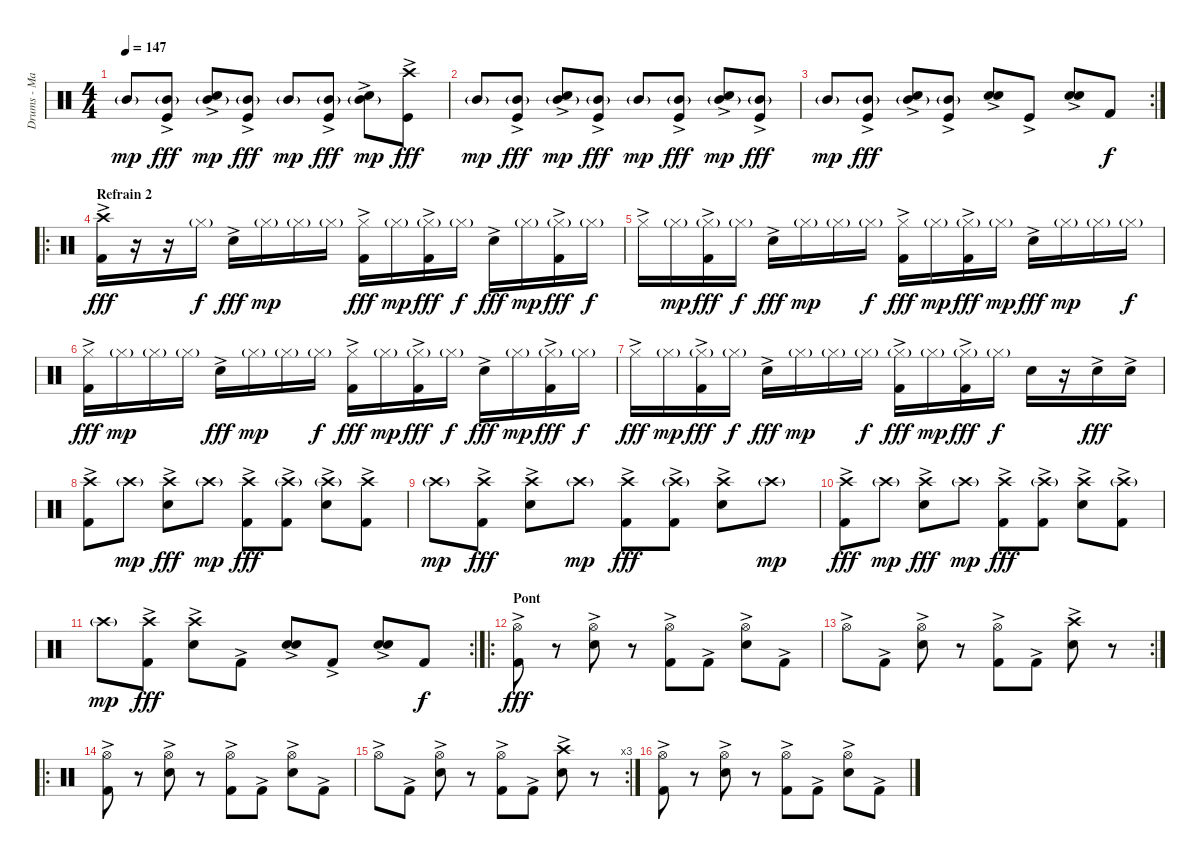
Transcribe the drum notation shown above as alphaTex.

\track ("Drums - Manu" "Drums - Ma") {instrument percussion}
\staff {score}
\articulation defaults
\ts (4 4)
\tempo 147
\clef neutral
\ks c "Mid Tom (hit)"{g}.8{dy mp}
("Mid Tom (hit)"{g} "Kick (hit)"{ac}).8{dy fff} ("Snare (hit) 2"{ac} "Mid Tom (hit)"{g}).8{dy mp} ("Mid Tom (hit)"{g} "Kick (hit)"{ac}).8{dy fff} "Mid Tom (hit)"{g}.8{dy mp} ("Mid Tom (hit)"{g} "Kick (hit)"{ac}).8{dy fff} ("Snare (hit) 2"{ac} "Mid Tom (hit)"{g}).8{dy mp} ("Crash high (hit)"{ac} "Kick (hit)"{ac}).8{dy fff} |
"Mid Tom (hit)"{g}.8{dy mp} ("Mid Tom (hit)"{g} "Kick (hit)"{ac}).8{dy fff} ("Snare (hit) 2"{ac} "Mid Tom (hit)"{g}).8{dy mp} ("Mid Tom (hit)"{g} "Kick (hit)"{ac}).8{dy fff} "Mid Tom (hit)"{g}.8{dy mp} ("Mid Tom (hit)"{g} "Kick (hit)"{ac}).8{dy fff} ("Snare (hit) 2"{ac} "Mid Tom (hit)"{g}).8{dy mp} ("Mid Tom (hit)"{g} "Kick (hit)"{ac}).8{dy fff} |
\rc 2 "Mid Tom (hit)"{g}.8{dy mp}
("Mid Tom (hit)"{g} "Kick (hit)"{ac}).8{dy fff} ("Mid Tom (hit)"{g} "Snare (hit) 2"{ac}).8 ("Mid Tom (hit)"{g} "Kick (hit)"{ac}).8 ("Snare (hit) 2"{ac} "Snare (hit) 2"{ac}).8 "Kick (hit)"{ac}.8 ("Snare (hit) 2"{ac} "Snare (hit) 2"{ac}).8 "Kick (hit) 2".8{dy f} |
\ro
\section ("" "Refrain 2")
("Crash high (hit)"{ac} "Kick (hit) 2"{ac}).16{dy fff} r.16 r.16 "Hi-Hat (closed)"{g}.16{dy f} "Snare (hit) 2"{ac}.16{dy fff} "Hi-Hat (closed)"{g}.16{dy mp} "Hi-Hat (closed)"{g}.16 "Hi-Hat (closed)"{g}.16 ("Hi-Hat (closed)"{ac} "Kick (hit) 2"{ac}).16{dy fff} "Hi-Hat (closed)"{g}.16{dy mp} ("Hi-Hat (closed)"{g} "Kick (hit) 2"{ac}).16{dy fff} "Hi-Hat (closed)"{g}.16{dy f} "Snare (hit) 2"{ac}.16{dy fff} "Hi-Hat (closed)"{g}.16{dy mp} ("Hi-Hat (closed)"{g} "Kick (hit) 2"{ac}).16{dy fff} "Hi-Hat (closed)"{g}.16{dy f} |
"Hi-Hat (closed)"{ac}.16 "Hi-Hat (closed)"{g}.16{dy mp} ("Hi-Hat (closed)"{g} "Kick (hit) 2"{ac}).16{dy fff} "Hi-Hat (closed)"{g}.16{dy f} "Snare (hit) 2"{ac}.16{dy fff} "Hi-Hat (closed)"{g}.16{dy mp} "Hi-Hat (closed)"{g}.16 "Hi-Hat (closed)"{g}.16{dy f} ("Hi-Hat (closed)"{ac} "Kick (hit) 2"{ac}).16{dy fff} "Hi-Hat (closed)"{g}.16{dy mp} ("Hi-Hat (closed)"{g} "Kick (hit) 2"{ac}).16{dy fff} "Hi-Hat (closed)"{g}.16{dy mp} "Snare (hit) 2"{ac}.16{dy fff} "Hi-Hat (closed)"{g}.16{dy mp} "Hi-Hat (closed)"{g}.16 "Hi-Hat (closed)"{g}.16{dy f} |
("Hi-Hat (closed)"{ac} "Kick (hit) 2"{ac}).16{dy fff} "Hi-Hat (closed)"{g}.16{dy mp} "Hi-Hat (closed)"{g}.16 "Hi-Hat (closed)"{g}.16 "Snare (hit) 2"{ac}.16{dy fff} "Hi-Hat (closed)"{g}.16{dy mp} "Hi-Hat (closed)"{g}.16 "Hi-Hat (closed)"{g}.16{dy f} ("Hi-Hat (closed)"{ac} "Kick (hit) 2"{ac}).16{dy fff} "Hi-Hat (closed)"{g}.16{dy mp} ("Hi-Hat (closed)"{g} "Kick (hit) 2"{ac}).16{dy fff} "Hi-Hat (closed)"{g}.16{dy f} "Snare (hit) 2"{ac}.16{dy fff} "Hi-Hat (closed)"{g}.16{dy mp} ("Hi-Hat (closed)"{g} "Kick (hit) 2"{ac}).16{dy fff} "Hi-Hat (closed)"{g}.16{dy f} |
"Hi-Hat (closed)"{ac}.16{dy fff} "Hi-Hat (closed)"{g}.16{dy mp} ("Hi-Hat (closed)"{g} "Kick (hit) 2"{ac}).16{dy fff} "Hi-Hat (closed)"{g}.16{dy f} "Snare (hit) 2"{ac}.16{dy fff} "Hi-Hat (closed)"{g}.16{dy mp} "Hi-Hat (closed)"{g}.16 "Hi-Hat (closed)"{g}.16{dy f} ("Hi-Hat (closed)"{g} "Kick (hit) 2"{ac}).16{dy fff} "Hi-Hat (closed)"{g}.16{dy mp} ("Hi-Hat (closed)"{g} "Kick (hit) 2"{ac}).16{dy fff} "Hi-Hat (closed)"{g}.16{dy f} "Snare (hit) 2".16 r.16 "Snare (hit) 2"{ac}.16{dy fff} "Snare (hit) 2"{ac}.16 |
("Crash high (hit)" "Kick (hit) 2"{ac}).8 "Crash high (hit)"{g}.8{dy mp} ("Crash high (hit)" "Snare (hit) 2"{ac}).8{dy fff} "Crash high (hit)"{g}.8{dy mp} ("Crash high (hit)" "Kick (hit) 2"{ac}).8{dy fff} ("Crash high (hit)"{g} "Kick (hit) 2"{ac}).8 ("Crash high (hit)"{g} "Snare (hit) 2"{ac}).8 ("Crash high (hit)" "Kick (hit) 2"{ac}).8 |
"Crash high (hit)"{g}.8{dy mp} ("Crash high (hit)" "Kick (hit) 2"{ac}).8{dy fff} ("Crash high (hit)" "Snare (hit) 2"{ac}).8 "Crash high (hit)"{g}.8{dy mp} ("Crash high (hit)" "Kick (hit) 2"{ac}).8{dy fff} ("Crash high (hit)"{g} "Kick (hit) 2"{ac}).8 ("Crash high (hit)" "Snare (hit) 2"{ac}).8 "Crash high (hit)"{g}.8{dy mp} |
("Crash high (hit)" "Kick (hit) 2"{ac}).8{dy fff} "Crash high (hit)"{g}.8{dy mp} ("Crash high (hit)" "Snare (hit) 2"{ac}).8{dy fff} "Crash high (hit)"{g}.8{dy mp} ("Crash high (hit)" "Kick (hit) 2"{ac}).8{dy fff} ("Crash high (hit)"{g} "Kick (hit) 2"{ac}).8 ("Crash high (hit)" "Snare (hit) 2"{ac}).8 ("Crash high (hit)"{g} "Kick (hit) 2"{ac}).8 |
\rc 2 "Crash high (hit)"{g}.8{dy mp}
("Crash high (hit)" "Kick (hit) 2"{ac}).8{dy fff} ("Crash high (hit)" "Snare (hit) 2"{ac}).8 "Kick (hit) 2"{ac}.8 ("Snare (hit) 2" "Snare (hit) 2"{ac}).8 "Kick (hit) 2"{ac}.8 ("Snare (hit) 2"{ac} "Snare (hit) 2"{ac}).8 "Kick (hit) 2".8{dy f} |
\ro
\section ("" "Pont")
("Hi-Hat (open)"{ac} "Kick (hit) 2"{ac}).8{dy fff} r.8 ("Hi-Hat (open)"{ac} "Snare (hit) 2"{ac}).8 r.8 ("Hi-Hat (open)"{ac} "Kick (hit) 2"{ac}).8 "Kick (hit) 2"{ac}.8 ("Hi-Hat (open)" "Snare (hit) 2"{ac}).8 "Kick (hit) 2"{ac}.8 |
\rc 2 "Hi-Hat (open)"{ac}.8 "Kick (hit) 2"{ac}.8
("Hi-Hat (open)"{ac} "Snare (hit) 2"{ac}).8 r.8 ("Hi-Hat (open)" "Kick (hit) 2"{ac}).8 "Kick (hit) 2"{ac}.8 ("Crash high (hit)" "Snare (hit) 2"{ac}).8 r.8 |
\ro
("Hi-Hat (open)"{ac} "Kick (hit) 2"{ac}).8 r.8 ("Hi-Hat (open)"{ac} "Snare (hit) 2"{ac}).8 r.8 ("Hi-Hat (open)"{ac} "Kick (hit) 2"{ac}).8 "Kick (hit) 2"{ac}.8 ("Hi-Hat (open)" "Snare (hit) 2"{ac}).8 "Kick (hit) 2"{ac}.8 |
\rc 3 "Hi-Hat (open)"{ac}.8 "Kick (hit) 2"{ac}.8
("Hi-Hat (open)"{ac} "Snare (hit) 2"{ac}).8 r.8 ("Hi-Hat (open)" "Kick (hit) 2"{ac}).8 "Kick (hit) 2"{ac}.8 ("Crash high (hit)" "Snare (hit) 2"{ac}).8 r.8 |
("Hi-Hat (open)"{ac} "Kick (hit) 2"{ac}).8 r.8 ("Hi-Hat (open)"{ac} "Snare (hit) 2"{ac}).8 r.8 ("Hi-Hat (open)"{ac} "Kick (hit) 2"{ac}).8 "Kick (hit) 2"{ac}.8 ("Hi-Hat (open)" "Snare (hit) 2"{ac}).8 "Kick (hit) 2"{ac}.8
